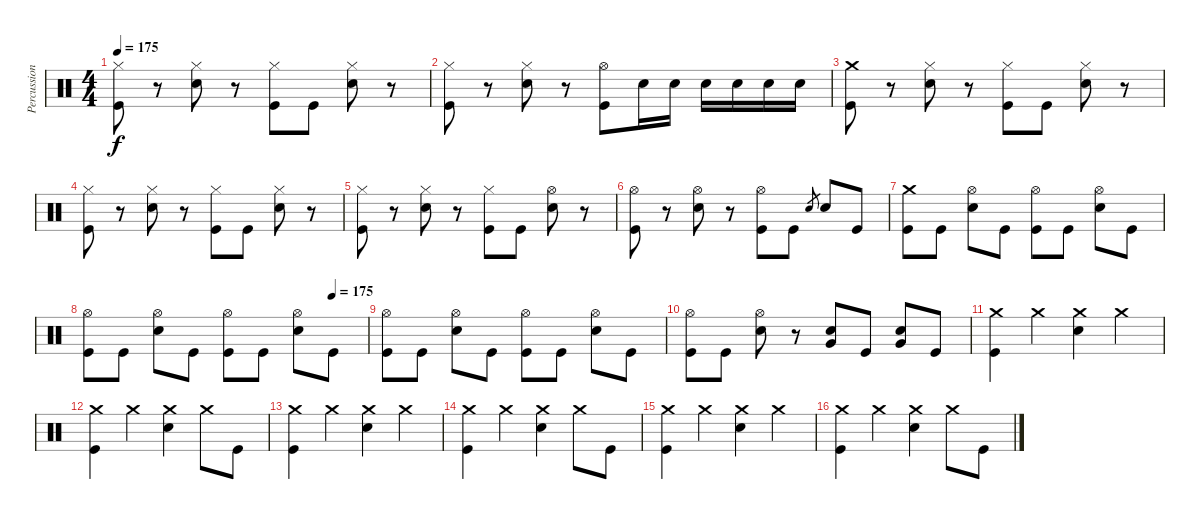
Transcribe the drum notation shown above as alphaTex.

\track ("Percussion" "Percussion") {instrument percussion}
\staff {score}
\articulation defaults
\ts (4 4)
\tempo 175
\clef neutral
\ks c
("Hi-Hat (closed)" "Kick (hit)").8{dy f} r.8 ("Hi-Hat (closed)" "Electric Snare (hit)").8 r.8 ("Hi-Hat (closed)" "Kick (hit)").8 "Kick (hit)".8 ("Hi-Hat (closed)" "Electric Snare (hit)").8 r.8 |
("Hi-Hat (closed)" "Kick (hit)").8 r.8 ("Hi-Hat (closed)" "Electric Snare (hit)").8 r.8 ("Hi-Hat (open)" "Kick (hit)").8 "Electric Snare (hit)".16 "Electric Snare (hit)".16 "Electric Snare (hit)".16 "Electric Snare (hit)".16 "Electric Snare (hit)".16 "Electric Snare (hit)".16 |
("Crash medium (hit)" "Kick (hit)").8 r.8 ("Hi-Hat (closed)" "Electric Snare (hit)").8 r.8 ("Hi-Hat (closed)" "Kick (hit)").8 "Kick (hit)".8 ("Hi-Hat (closed)" "Electric Snare (hit)").8 r.8 |
("Hi-Hat (closed)" "Kick (hit)").8 r.8 ("Hi-Hat (closed)" "Electric Snare (hit)").8 r.8 ("Hi-Hat (closed)" "Kick (hit)").8 "Kick (hit)".8 ("Hi-Hat (closed)" "Electric Snare (hit)").8 r.8 |
("Hi-Hat (closed)" "Kick (hit)").8 r.8 ("Hi-Hat (closed)" "Electric Snare (hit)").8 r.8 ("Hi-Hat (closed)" "Kick (hit)").8 "Kick (hit)".8 ("Hi-Hat (open)" "Electric Snare (hit)").8 r.8 |
("Hi-Hat (open)" "Kick (hit)").8 r.8 ("Hi-Hat (open)" "Electric Snare (hit)").8 r.8 ("Hi-Hat (open)" "Kick (hit)").8 "Kick (hit)".8 "Electric Snare (hit)".8{gr} "Electric Snare (hit)".8 "Kick (hit)".8 |
("Crash medium (hit)" "Kick (hit)").8 "Kick (hit)".8 ("Hi-Hat (open)" "Electric Snare (hit)").8 "Kick (hit)".8 ("Hi-Hat (open)" "Kick (hit)").8 "Kick (hit)".8 ("Hi-Hat (open)" "Electric Snare (hit)").8 "Kick (hit)".8 |
\tempo (175 0.875)
("Hi-Hat (open)" "Kick (hit)").8 "Kick (hit)".8 ("Hi-Hat (open)" "Electric Snare (hit)").8 "Kick (hit)".8 ("Hi-Hat (open)" "Kick (hit)").8 "Kick (hit)".8 ("Hi-Hat (open)" "Electric Snare (hit)").8 "Kick (hit)".8 |
("Hi-Hat (open)" "Kick (hit)").8 "Kick (hit)".8 ("Hi-Hat (open)" "Electric Snare (hit)").8 "Kick (hit)".8 ("Hi-Hat (open)" "Kick (hit)").8 "Kick (hit)".8 ("Hi-Hat (open)" "Electric Snare (hit)").8 "Kick (hit)".8 |
("Hi-Hat (open)" "Kick (hit)").8 "Kick (hit)".8 ("Hi-Hat (open)" "Electric Snare (hit)").8 r.8 ("Very Low Tom (hit)" "Electric Snare (hit)").8 "Kick (hit)".8 ("Very Low Tom (hit)" "Electric Snare (hit)").8 "Kick (hit)".8 |
("Crash medium (hit)" "Kick (hit)").4 "Crash medium (hit)".4 ("Crash medium (hit)" "Electric Snare (hit)").4 "Crash medium (hit)".4 |
("Crash medium (hit)" "Kick (hit)").4 "Crash medium (hit)".4 ("Crash medium (hit)" "Electric Snare (hit)").4 "Crash medium (hit)".8 "Kick (hit)".8 |
("Crash medium (hit)" "Kick (hit)").4 "Crash medium (hit)".4 ("Crash medium (hit)" "Electric Snare (hit)").4 "Crash medium (hit)".4 |
("Crash medium (hit)" "Kick (hit)").4 "Crash medium (hit)".4 ("Crash medium (hit)" "Electric Snare (hit)").4 "Crash medium (hit)".8 "Kick (hit)".8 |
("Crash medium (hit)" "Kick (hit)").4 "Crash medium (hit)".4 ("Crash medium (hit)" "Electric Snare (hit)").4 "Crash medium (hit)".4 |
("Crash medium (hit)" "Kick (hit)").4 "Crash medium (hit)".4 ("Crash medium (hit)" "Electric Snare (hit)").4 "Crash medium (hit)".8 "Kick (hit)".8
